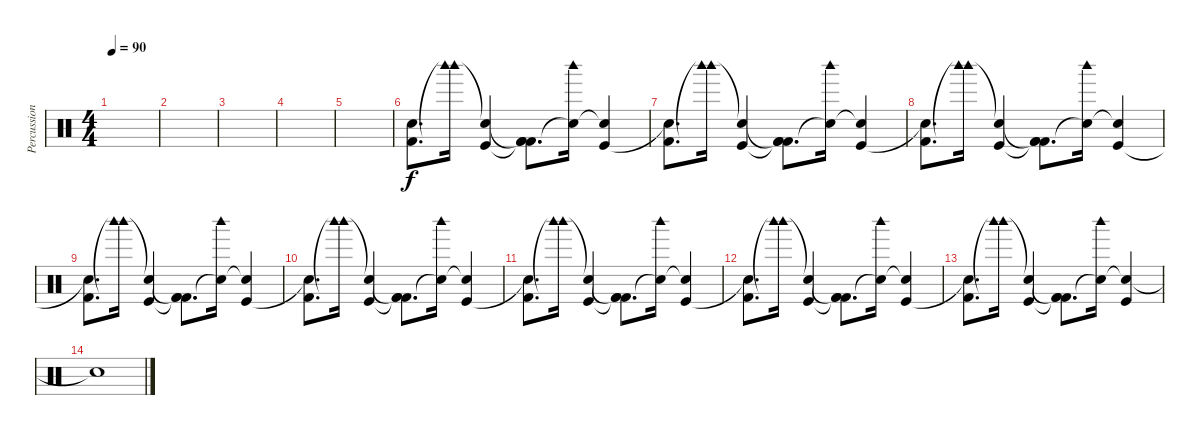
\track ("Percussion" "Percussion") {instrument percussion}
\staff {score}
\articulation defaults
\ts (4 4)
\tempo 90
\clef neutral
\ks c
|
|
|
|
|
("Kick (hit) 2" "Snare (hit)").8{d} ("Woodblock high (hit)"{t} "Woodblock high (hit)").16 ("Snare (hit)"{t} "Kick (hit)").4 ("Kick (hit) 2"{t} "Kick (hit) 2"{t} "Kick (hit) 2").8{d} ("Snare (hit)"{t} "Woodblock high (hit)").16 ("Snare (hit)"{t} "Kick (hit)").4 |
("Kick (hit) 2" "Snare (hit)"{t}).8{d} ("Woodblock high (hit)"{t} "Woodblock high (hit)").16 ("Snare (hit)"{t} "Kick (hit)").4 ("Kick (hit) 2"{t} "Kick (hit) 2"{t} "Kick (hit) 2").8{d} ("Snare (hit)"{t} "Woodblock high (hit)").16 ("Snare (hit)"{t} "Kick (hit)").4 |
("Kick (hit) 2" "Snare (hit)"{t}).8{d} ("Woodblock high (hit)"{t} "Woodblock high (hit)").16 ("Snare (hit)"{t} "Kick (hit)").4 ("Kick (hit) 2"{t} "Kick (hit) 2"{t} "Kick (hit) 2").8{d} ("Snare (hit)"{t} "Woodblock high (hit)").16 ("Snare (hit)"{t} "Kick (hit)").4 |
("Kick (hit) 2" "Snare (hit)"{t}).8{d} ("Woodblock high (hit)"{t} "Woodblock high (hit)").16 ("Snare (hit)"{t} "Kick (hit)").4 ("Kick (hit) 2"{t} "Kick (hit) 2"{t} "Kick (hit) 2").8{d} ("Snare (hit)"{t} "Woodblock high (hit)").16 ("Snare (hit)"{t} "Kick (hit)").4 |
("Kick (hit) 2" "Snare (hit)"{t}).8{d} ("Woodblock high (hit)"{t} "Woodblock high (hit)").16 ("Snare (hit)"{t} "Kick (hit)").4 ("Kick (hit) 2"{t} "Kick (hit) 2"{t} "Kick (hit) 2").8{d} ("Snare (hit)"{t} "Woodblock high (hit)").16 ("Snare (hit)"{t} "Kick (hit)").4 |
("Kick (hit) 2" "Snare (hit)"{t}).8{d} ("Woodblock high (hit)"{t} "Woodblock high (hit)").16 ("Snare (hit)"{t} "Kick (hit)").4 ("Kick (hit) 2"{t} "Kick (hit) 2"{t} "Kick (hit) 2").8{d} ("Snare (hit)"{t} "Woodblock high (hit)").16 ("Snare (hit)"{t} "Kick (hit)").4 |
("Kick (hit) 2" "Snare (hit)"{t}).8{d} ("Woodblock high (hit)"{t} "Woodblock high (hit)").16 ("Snare (hit)"{t} "Kick (hit)").4 ("Kick (hit) 2"{t} "Kick (hit) 2"{t} "Kick (hit) 2").8{d} ("Snare (hit)"{t} "Woodblock high (hit)").16 ("Snare (hit)"{t} "Kick (hit)").4 |
("Kick (hit) 2" "Snare (hit)"{t}).8{d} ("Woodblock high (hit)"{t} "Woodblock high (hit)").16 ("Snare (hit)"{t} "Kick (hit)").4 ("Kick (hit) 2"{t} "Kick (hit) 2"{t} "Kick (hit) 2").8{d} ("Snare (hit)"{t} "Woodblock high (hit)").16 ("Snare (hit)"{t} "Kick (hit)").4 |
"Snare (hit)"{t}.1
